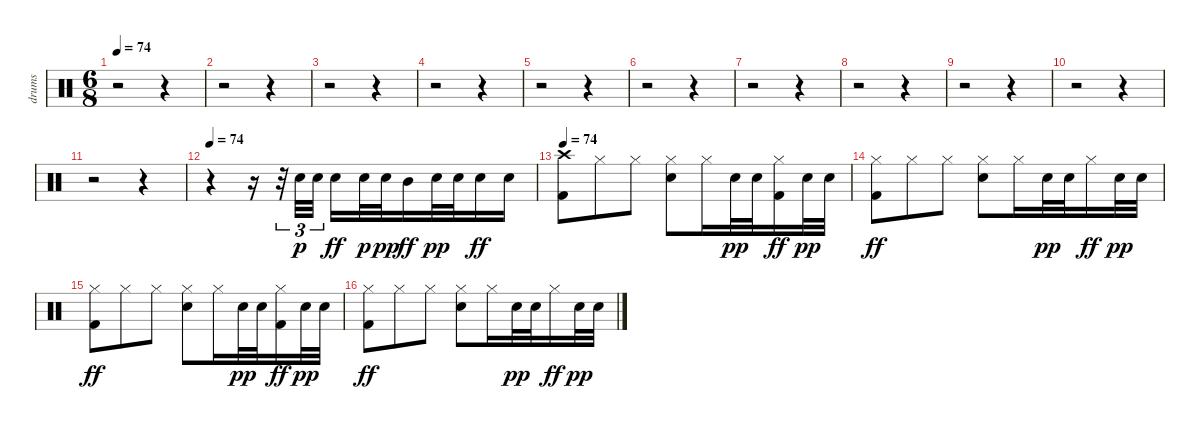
\track ("drums" "drums") {instrument percussion}
\staff {score}
\articulation defaults
\ts (6 8)
\tempo 74
\clef neutral
\ks c
r.2{dy p} r.4 |
r.2 r.4 |
r.2 r.4 |
r.2 r.4 |
r.2 r.4 |
r.2 r.4 |
r.2 r.4 |
r.2 r.4 |
r.2 r.4 |
r.2 r.4 |
r.2 r.4 |
\tempo 74
r.4 r.16 r.32{tu (3 2)} "Snare (hit) 2".32{tu (3 2)} "Snare (hit) 2".32{tu (3 2)} "Snare (hit) 2".16{dy ff} "Snare (hit) 2".32{dy p} "Snare (hit) 2".32{dy pp} "Mid Tom (hit)".16{dy ff} "Snare (hit) 2".32{dy pp} "Snare (hit) 2".32 "Snare (hit) 2".16{dy ff} "Snare (hit) 2".16 |
\tempo 74
("Crash high (hit)" "Kick (hit) 2").8 "Hi-Hat (closed)".8 "Hi-Hat (closed)".8 ("Hi-Hat (closed)" "Snare (hit) 2").8 "Hi-Hat (closed)".16 "Snare (hit) 2".32{dy pp} "Snare (hit) 2".32 ("Hi-Hat (closed)" "Kick (hit) 2").16{dy ff} "Snare (hit) 2".32{dy pp} "Snare (hit) 2".32 |
("Hi-Hat (closed)" "Kick (hit) 2").8{dy ff} "Hi-Hat (closed)".8 "Hi-Hat (closed)".8 ("Hi-Hat (closed)" "Snare (hit) 2").8 "Hi-Hat (closed)".16 "Snare (hit) 2".32{dy pp} "Snare (hit) 2".32 "Hi-Hat (closed)".16{dy ff} "Snare (hit) 2".32{dy pp} "Snare (hit) 2".32 |
("Hi-Hat (closed)" "Kick (hit) 2").8{dy ff} "Hi-Hat (closed)".8 "Hi-Hat (closed)".8 ("Hi-Hat (closed)" "Snare (hit) 2").8 "Hi-Hat (closed)".16 "Snare (hit) 2".32{dy pp} "Snare (hit) 2".32 ("Hi-Hat (closed)" "Kick (hit) 2").16{dy ff} "Snare (hit) 2".32{dy pp} "Snare (hit) 2".32 |
("Hi-Hat (closed)" "Kick (hit) 2").8{dy ff} "Hi-Hat (closed)".8 "Hi-Hat (closed)".8 ("Hi-Hat (closed)" "Snare (hit) 2").8 "Hi-Hat (closed)".16 "Snare (hit) 2".32{dy pp} "Snare (hit) 2".32 "Hi-Hat (closed)".16{dy ff} "Snare (hit) 2".32{dy pp} "Snare (hit) 2".32
